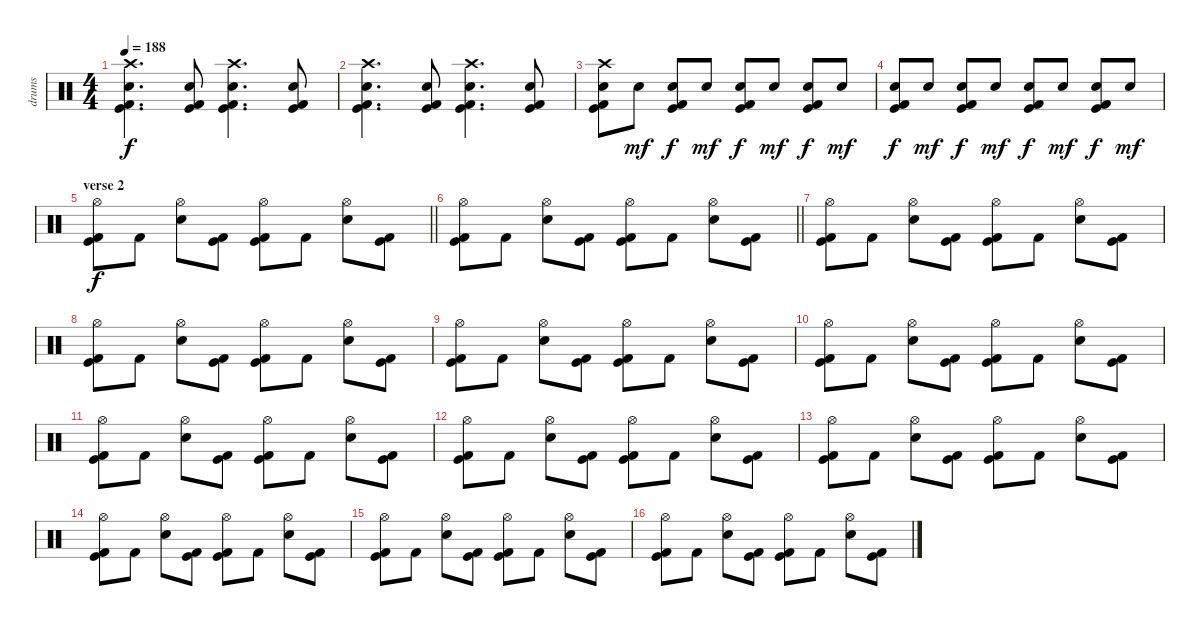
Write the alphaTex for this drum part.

\track ("drums" "drums") {instrument percussion}
\staff {score}
\articulation defaults
\ts (4 4)
\tempo 188
\clef neutral
\ks c
("Crash high (hit)" "Snare (hit) 2" "Kick (hit)" "Kick (hit) 2").4{d dy f} ("Snare (hit) 2" "Kick (hit)" "Kick (hit) 2").8 ("Crash high (hit)" "Snare (hit) 2" "Kick (hit)" "Kick (hit) 2").4{d} ("Snare (hit) 2" "Kick (hit)" "Kick (hit) 2").8 |
("Crash high (hit)" "Snare (hit) 2" "Kick (hit)" "Kick (hit) 2").4{d} ("Snare (hit) 2" "Kick (hit)" "Kick (hit) 2").8 ("Crash high (hit)" "Snare (hit) 2" "Kick (hit)" "Kick (hit) 2").4{d} ("Snare (hit) 2" "Kick (hit)" "Kick (hit) 2").8 |
("Crash high (hit)" "Snare (hit) 2" "Kick (hit)" "Kick (hit) 2").8 "Snare (hit) 2".8{dy mf} ("Snare (hit) 2" "Kick (hit)" "Kick (hit) 2").8{dy f} "Snare (hit) 2".8{dy mf} ("Snare (hit) 2" "Kick (hit)" "Kick (hit) 2").8{dy f} "Snare (hit) 2".8{dy mf} ("Snare (hit) 2" "Kick (hit)" "Kick (hit) 2").8{dy f} "Snare (hit) 2".8{dy mf} |
("Snare (hit) 2" "Kick (hit)" "Kick (hit) 2").8{dy f} "Snare (hit) 2".8{dy mf} ("Snare (hit) 2" "Kick (hit)" "Kick (hit) 2").8{dy f} "Snare (hit) 2".8{dy mf} ("Snare (hit) 2" "Kick (hit)" "Kick (hit) 2").8{dy f} "Snare (hit) 2".8{dy mf} ("Snare (hit) 2" "Kick (hit)" "Kick (hit) 2").8{dy f} "Snare (hit) 2".8{dy mf} |
\section ("" "verse 2")
\barLineRight lightlight
("Hi-Hat (open)" "Kick (hit)" "Kick (hit) 2").8{dy f} "Kick (hit) 2".8 ("Hi-Hat (open)" "Snare (hit) 2").8 ("Kick (hit)" "Kick (hit) 2").8 ("Hi-Hat (open)" "Kick (hit)" "Kick (hit) 2").8 "Kick (hit) 2".8 ("Hi-Hat (open)" "Snare (hit) 2").8 ("Kick (hit)" "Kick (hit) 2").8 |
\barLineRight lightlight
("Hi-Hat (open)" "Kick (hit)" "Kick (hit) 2").8 "Kick (hit) 2".8 ("Hi-Hat (open)" "Snare (hit) 2").8 ("Kick (hit)" "Kick (hit) 2").8 ("Hi-Hat (open)" "Kick (hit)" "Kick (hit) 2").8 "Kick (hit) 2".8 ("Hi-Hat (open)" "Snare (hit) 2").8 ("Kick (hit)" "Kick (hit) 2").8 |
("Hi-Hat (open)" "Kick (hit)" "Kick (hit) 2").8 "Kick (hit) 2".8 ("Hi-Hat (open)" "Snare (hit) 2").8 ("Kick (hit)" "Kick (hit) 2").8 ("Hi-Hat (open)" "Kick (hit)" "Kick (hit) 2").8 "Kick (hit) 2".8 ("Hi-Hat (open)" "Snare (hit) 2").8 ("Kick (hit)" "Kick (hit) 2").8 |
("Hi-Hat (open)" "Kick (hit)" "Kick (hit) 2").8 "Kick (hit) 2".8 ("Hi-Hat (open)" "Snare (hit) 2").8 ("Kick (hit)" "Kick (hit) 2").8 ("Hi-Hat (open)" "Kick (hit)" "Kick (hit) 2").8 "Kick (hit) 2".8 ("Hi-Hat (open)" "Snare (hit) 2").8 ("Kick (hit)" "Kick (hit) 2").8 |
("Hi-Hat (open)" "Kick (hit)" "Kick (hit) 2").8 "Kick (hit) 2".8 ("Hi-Hat (open)" "Snare (hit) 2").8 ("Kick (hit)" "Kick (hit) 2").8 ("Hi-Hat (open)" "Kick (hit)" "Kick (hit) 2").8 "Kick (hit) 2".8 ("Hi-Hat (open)" "Snare (hit) 2").8 ("Kick (hit)" "Kick (hit) 2").8 |
("Hi-Hat (open)" "Kick (hit)" "Kick (hit) 2").8 "Kick (hit) 2".8 ("Hi-Hat (open)" "Snare (hit) 2").8 ("Kick (hit)" "Kick (hit) 2").8 ("Hi-Hat (open)" "Kick (hit)" "Kick (hit) 2").8 "Kick (hit) 2".8 ("Hi-Hat (open)" "Snare (hit) 2").8 ("Kick (hit)" "Kick (hit) 2").8 |
("Hi-Hat (open)" "Kick (hit)" "Kick (hit) 2").8 "Kick (hit) 2".8 ("Hi-Hat (open)" "Snare (hit) 2").8 ("Kick (hit)" "Kick (hit) 2").8 ("Hi-Hat (open)" "Kick (hit)" "Kick (hit) 2").8 "Kick (hit) 2".8 ("Hi-Hat (open)" "Snare (hit) 2").8 ("Kick (hit)" "Kick (hit) 2").8 |
("Hi-Hat (open)" "Kick (hit)" "Kick (hit) 2").8 "Kick (hit) 2".8 ("Hi-Hat (open)" "Snare (hit) 2").8 ("Kick (hit)" "Kick (hit) 2").8 ("Hi-Hat (open)" "Kick (hit)" "Kick (hit) 2").8 "Kick (hit) 2".8 ("Hi-Hat (open)" "Snare (hit) 2").8 ("Kick (hit)" "Kick (hit) 2").8 |
("Hi-Hat (open)" "Kick (hit)" "Kick (hit) 2").8 "Kick (hit) 2".8 ("Hi-Hat (open)" "Snare (hit) 2").8 ("Kick (hit)" "Kick (hit) 2").8 ("Hi-Hat (open)" "Kick (hit)" "Kick (hit) 2").8 "Kick (hit) 2".8 ("Hi-Hat (open)" "Snare (hit) 2").8 ("Kick (hit)" "Kick (hit) 2").8 |
("Hi-Hat (open)" "Kick (hit)" "Kick (hit) 2").8 "Kick (hit) 2".8 ("Hi-Hat (open)" "Snare (hit) 2").8 ("Kick (hit)" "Kick (hit) 2").8 ("Hi-Hat (open)" "Kick (hit)" "Kick (hit) 2").8 "Kick (hit) 2".8 ("Hi-Hat (open)" "Snare (hit) 2").8 ("Kick (hit)" "Kick (hit) 2").8 |
("Hi-Hat (open)" "Kick (hit)" "Kick (hit) 2").8 "Kick (hit) 2".8 ("Hi-Hat (open)" "Snare (hit) 2").8 ("Kick (hit)" "Kick (hit) 2").8 ("Hi-Hat (open)" "Kick (hit)" "Kick (hit) 2").8 "Kick (hit) 2".8 ("Hi-Hat (open)" "Snare (hit) 2").8 ("Kick (hit)" "Kick (hit) 2").8 |
("Hi-Hat (open)" "Kick (hit)" "Kick (hit) 2").8 "Kick (hit) 2".8 ("Hi-Hat (open)" "Snare (hit) 2").8 ("Kick (hit)" "Kick (hit) 2").8 ("Hi-Hat (open)" "Kick (hit)" "Kick (hit) 2").8 "Kick (hit) 2".8 ("Hi-Hat (open)" "Snare (hit) 2").8 ("Kick (hit)" "Kick (hit) 2").8
